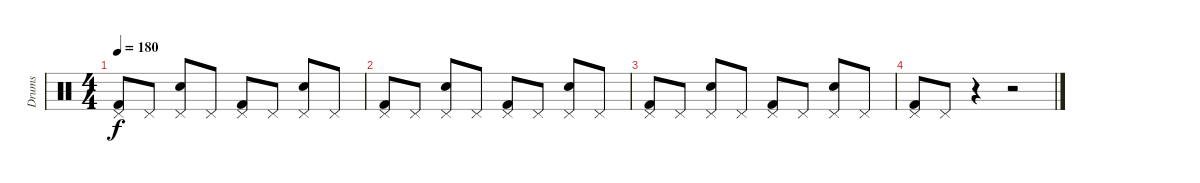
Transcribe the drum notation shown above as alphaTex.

\track ("Drums" "Drums") {instrument percussion}
\staff {score}
\articulation defaults
\ts (4 4)
\tempo 180
\clef neutral
\ks c
("Pedal Hi-Hat (hit)" "Kick (hit) 2").8{dy f} "Pedal Hi-Hat (hit)".8 ("Pedal Hi-Hat (hit)" "Electric Snare (hit)").8 "Pedal Hi-Hat (hit)".8 ("Pedal Hi-Hat (hit)" "Kick (hit) 2").8 "Pedal Hi-Hat (hit)".8 ("Pedal Hi-Hat (hit)" "Electric Snare (hit)").8 "Pedal Hi-Hat (hit)".8 |
("Pedal Hi-Hat (hit)" "Kick (hit) 2").8 "Pedal Hi-Hat (hit)".8 ("Pedal Hi-Hat (hit)" "Electric Snare (hit)").8 "Pedal Hi-Hat (hit)".8 ("Pedal Hi-Hat (hit)" "Kick (hit) 2").8 "Pedal Hi-Hat (hit)".8 ("Pedal Hi-Hat (hit)" "Electric Snare (hit)").8 "Pedal Hi-Hat (hit)".8 |
("Pedal Hi-Hat (hit)" "Kick (hit) 2").8 "Pedal Hi-Hat (hit)".8 ("Pedal Hi-Hat (hit)" "Electric Snare (hit)").8 "Pedal Hi-Hat (hit)".8 ("Pedal Hi-Hat (hit)" "Kick (hit) 2").8 "Pedal Hi-Hat (hit)".8 ("Pedal Hi-Hat (hit)" "Electric Snare (hit)").8 "Pedal Hi-Hat (hit)".8 |
("Pedal Hi-Hat (hit)" "Kick (hit) 2").8 "Pedal Hi-Hat (hit)".8 r.4 r.2
